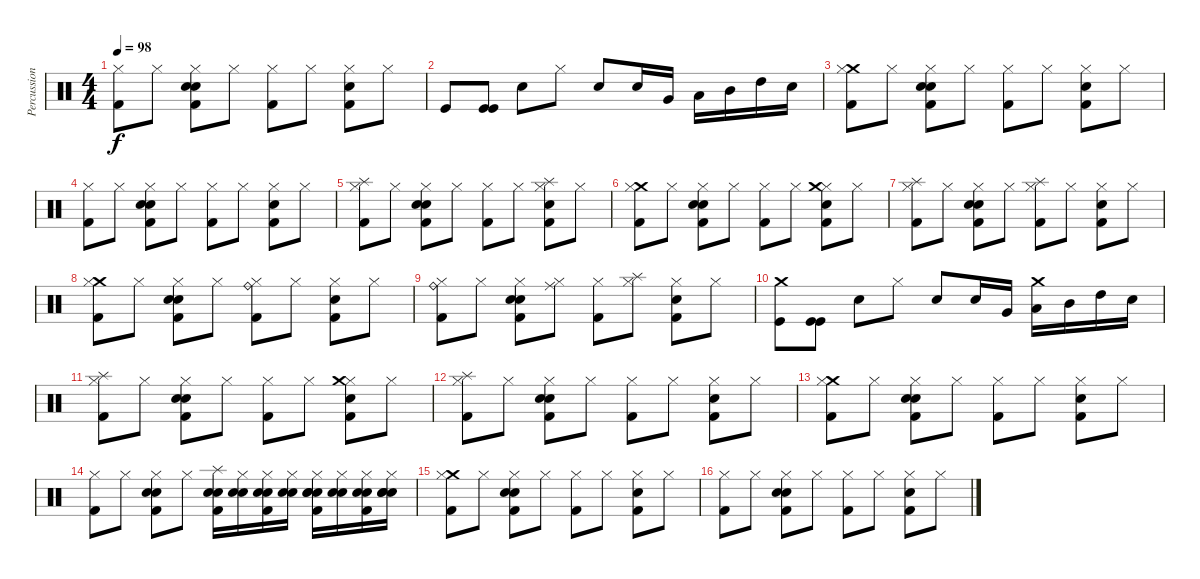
\track ("Percussion" "Percussion") {instrument percussion}
\staff {score}
\articulation defaults
\ts (4 4)
\tempo 98
\clef neutral
\ks c
("Kick (hit) 2" "Hi-Hat (closed)").8{dy f} "Hi-Hat (closed)".8 ("Hi-Hat (closed)" "Snare (hit)" "Snare (hit) 2" "Kick (hit) 2").8 "Hi-Hat (closed)".8 ("Hi-Hat (closed)" "Kick (hit) 2").8 "Hi-Hat (closed)".8 ("Hi-Hat (closed)" "Snare (hit) 2" "Kick (hit) 2").8 "Hi-Hat (closed)".8 |
"Kick (hit)".8 ("Kick (hit)" "Kick (hit)").8 "Snare (hit) 2".8 "Hi-Hat (closed)".8 "Snare (hit) 2".8 "Snare (hit) 2".16 "Very Low Tom (hit)".16 "Low Tom (hit)".16 "Mid Tom (hit)".16 "High Tom (hit)".16 "Electric Snare (hit)".16 |
("Kick (hit) 2" "Crash medium (hit)" "Hi-Hat (closed)").8 "Hi-Hat (closed)".8 ("Hi-Hat (closed)" "Snare (hit)" "Snare (hit) 2" "Kick (hit) 2").8 "Hi-Hat (closed)".8 ("Hi-Hat (closed)" "Kick (hit) 2").8 "Hi-Hat (closed)".8 ("Hi-Hat (closed)" "Snare (hit) 2" "Kick (hit) 2").8 "Hi-Hat (closed)".8 |
("Kick (hit) 2" "Hi-Hat (closed)").8 "Hi-Hat (closed)".8 ("Hi-Hat (closed)" "Snare (hit)" "Snare (hit) 2" "Kick (hit) 2").8 "Hi-Hat (closed)".8 ("Hi-Hat (closed)" "Kick (hit) 2").8 "Hi-Hat (closed)".8 ("Hi-Hat (closed)" "Snare (hit) 2" "Kick (hit) 2").8 "Hi-Hat (closed)".8 |
("Kick (hit) 2" "Splash (hit)" "Hi-Hat (closed)").8 "Hi-Hat (closed)".8 ("Hi-Hat (closed)" "Snare (hit)" "Snare (hit) 2" "Kick (hit) 2").8 "Hi-Hat (closed)".8 ("Hi-Hat (closed)" "Kick (hit) 2").8 "Hi-Hat (closed)".8 ("Hi-Hat (closed)" "Splash (hit)" "Snare (hit) 2" "Kick (hit) 2").8 "Hi-Hat (closed)".8 |
("Kick (hit) 2" "Crash medium (hit)" "Hi-Hat (closed)").8 "Hi-Hat (closed)".8 ("Hi-Hat (closed)" "Snare (hit)" "Snare (hit) 2" "Kick (hit) 2").8 "Hi-Hat (closed)".8 ("Hi-Hat (closed)" "Kick (hit) 2").8 "Hi-Hat (closed)".8 ("Hi-Hat (closed)" "Crash medium (hit)" "Snare (hit) 2" "Kick (hit) 2").8 "Hi-Hat (closed)".8 |
("Kick (hit) 2" "Splash (hit)" "Hi-Hat (closed)").8 "Hi-Hat (closed)".8 ("Hi-Hat (closed)" "Snare (hit)" "Snare (hit) 2" "Kick (hit) 2").8 "Hi-Hat (closed)".8 ("Hi-Hat (closed)" "Splash (hit)" "Kick (hit) 2").8 "Hi-Hat (closed)".8 ("Hi-Hat (closed)" "Snare (hit) 2" "Kick (hit) 2").8 "Hi-Hat (closed)".8 |
("Kick (hit) 2" "Crash medium (hit)" "Hi-Hat (closed)").8 "Hi-Hat (closed)".8 ("Hi-Hat (closed)" "Snare (hit)" "Snare (hit) 2" "Kick (hit) 2").8 "Hi-Hat (closed)".8 ("Hi-Hat (closed)" "Ride (bell)" "Kick (hit) 2").8 "Hi-Hat (closed)".8 ("Hi-Hat (closed)" "Snare (hit) 2" "Kick (hit) 2").8 "Hi-Hat (closed)".8 |
("Kick (hit) 2" "Ride (bell)" "Hi-Hat (closed)").8 "Hi-Hat (closed)".8 ("Hi-Hat (closed)" "Snare (hit)" "Snare (hit) 2" "Kick (hit) 2").8 ("Hi-Hat (closed)" "Ride (middle)").8 ("Hi-Hat (closed)" "Kick (hit) 2").8 ("Hi-Hat (closed)" "Splash (hit)").8 ("Hi-Hat (closed)" "Snare (hit) 2" "Kick (hit) 2").8 "Hi-Hat (closed)".8 |
("Crash medium (hit)" "Kick (hit)").8 ("Kick (hit)" "Kick (hit)").8 "Snare (hit) 2".8 "Hi-Hat (closed)".8 "Snare (hit) 2".8 "Snare (hit) 2".16 "Very Low Tom (hit)".16 ("Crash medium (hit)" "Low Tom (hit)").16 "Mid Tom (hit)".16 "High Tom (hit)".16 "Electric Snare (hit)".16 |
("Kick (hit) 2" "Splash (hit)" "Hi-Hat (closed)").8 "Hi-Hat (closed)".8 ("Hi-Hat (closed)" "Snare (hit)" "Snare (hit) 2" "Kick (hit) 2").8 "Hi-Hat (closed)".8 ("Hi-Hat (closed)" "Kick (hit) 2").8 "Hi-Hat (closed)".8 ("Hi-Hat (closed)" "Crash medium (hit)" "Snare (hit) 2" "Kick (hit) 2").8 "Hi-Hat (closed)".8 |
("Kick (hit) 2" "Splash (hit)" "Hi-Hat (closed)").8 "Hi-Hat (closed)".8 ("Hi-Hat (closed)" "Snare (hit)" "Snare (hit) 2" "Kick (hit) 2").8 "Hi-Hat (closed)".8 ("Hi-Hat (closed)" "Kick (hit) 2").8 "Hi-Hat (closed)".8 ("Hi-Hat (closed)" "Snare (hit) 2" "Kick (hit) 2").8 "Hi-Hat (closed)".8 |
("Kick (hit) 2" "Crash medium (hit)" "Hi-Hat (closed)").8 "Hi-Hat (closed)".8 ("Hi-Hat (closed)" "Snare (hit)" "Snare (hit) 2" "Kick (hit) 2").8 "Hi-Hat (closed)".8 ("Hi-Hat (closed)" "Kick (hit) 2").8 "Hi-Hat (closed)".8 ("Hi-Hat (closed)" "Snare (hit) 2" "Kick (hit) 2").8 "Hi-Hat (closed)".8 |
("Kick (hit) 2" "Hi-Hat (closed)").8 "Hi-Hat (closed)".8 ("Hi-Hat (closed)" "Snare (hit)" "Snare (hit) 2" "Kick (hit) 2").8 "Hi-Hat (closed)".8 ("Snare (hit) 2" "Snare (hit) 2" "Splash (hit)" "Kick (hit) 2").16 ("Hi-Hat (closed)" "Snare (hit) 2" "Snare (hit) 2").16 ("Hi-Hat (closed)" "Snare (hit) 2" "Snare (hit) 2" "Kick (hit) 2").16 ("Hi-Hat (closed)" "Snare (hit) 2" "Snare (hit) 2").16 ("Hi-Hat (closed)" "Snare (hit) 2" "Snare (hit) 2" "Snare (hit) 2" "Kick (hit) 2").16 ("Hi-Hat (closed)" "Snare (hit) 2" "Snare (hit) 2").16 ("Hi-Hat (closed)" "Snare (hit) 2" "Snare (hit) 2" "Kick (hit) 2").16 ("Hi-Hat (closed)" "Snare (hit) 2" "Snare (hit) 2" "Snare (hit) 2").16 |
("Kick (hit) 2" "Crash medium (hit)" "Hi-Hat (closed)").8 "Hi-Hat (closed)".8 ("Hi-Hat (closed)" "Snare (hit)" "Snare (hit) 2" "Kick (hit) 2").8 "Hi-Hat (closed)".8 ("Hi-Hat (closed)" "Kick (hit) 2").8 "Hi-Hat (closed)".8 ("Hi-Hat (closed)" "Snare (hit) 2" "Kick (hit) 2").8 "Hi-Hat (closed)".8 |
("Kick (hit) 2" "Hi-Hat (closed)").8 "Hi-Hat (closed)".8 ("Hi-Hat (closed)" "Snare (hit)" "Snare (hit) 2" "Kick (hit) 2").8 "Hi-Hat (closed)".8 ("Hi-Hat (closed)" "Kick (hit) 2").8 "Hi-Hat (closed)".8 ("Hi-Hat (closed)" "Snare (hit) 2" "Kick (hit) 2").8 "Hi-Hat (closed)".8
